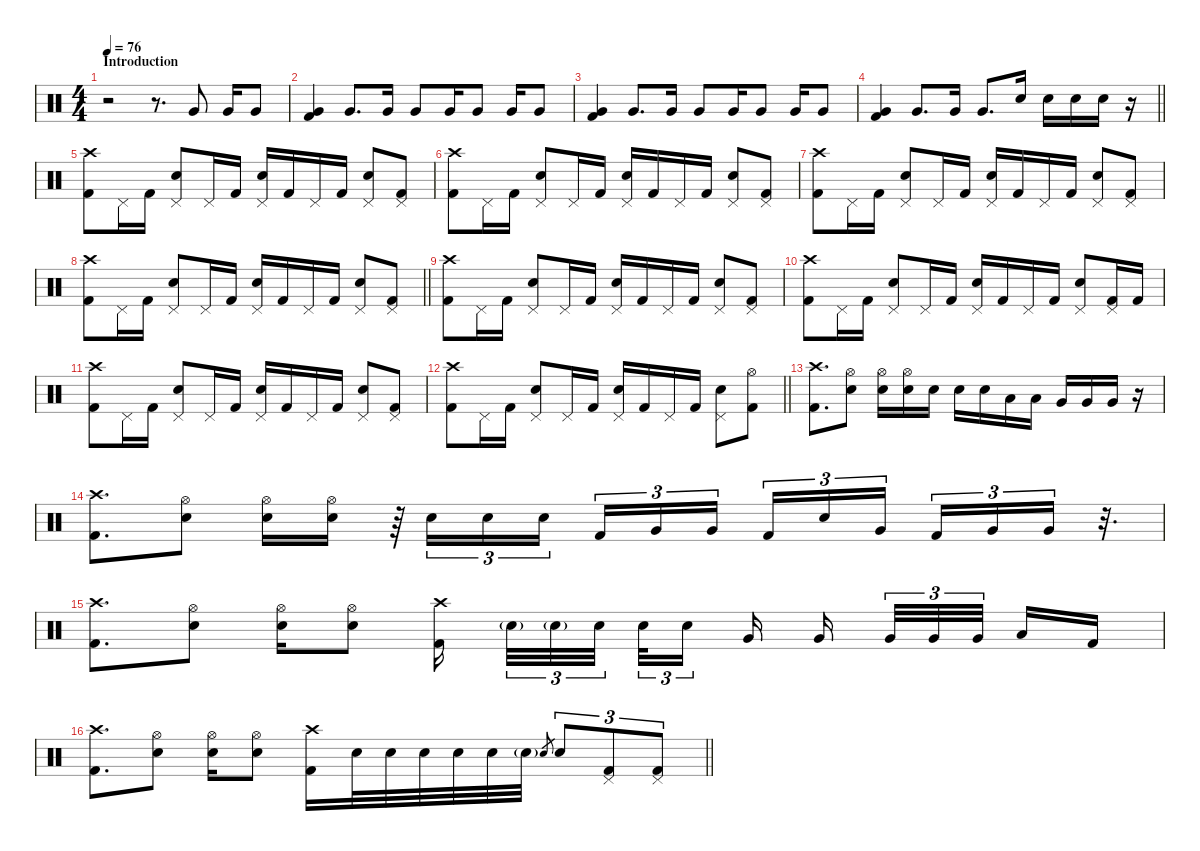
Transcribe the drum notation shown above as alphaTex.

\defaultSystemsLayout 4
\hideDynamics
\bracketExtendMode nobrackets
\singleTrackTrackNamePolicy hidden
\multiTrackTrackNamePolicy hidden
\firstSystemTrackNameMode fullname
\firstSystemTrackNameOrientation horizontal
\otherSystemsTrackNameOrientation horizontal
\track ("Bill Ward - Drums" "drm.") {instrument percussion}
\staff {score}
\articulation defaults
\ts (4 4)
\beaming (8 2 2 2 2)
\section ("" "Introduction")
\tempo 76
\clef neutral
\ks c
r.2{dy f} r.8{d} "Very Low Tom (hit)".8 "Very Low Tom (hit)".16 "Very Low Tom (hit)".8 |
("Very Low Tom (hit)" "Kick (hit) 2").4 "Very Low Tom (hit)".8{d} "Very Low Tom (hit)".16 "Very Low Tom (hit)".8 "Very Low Tom (hit)".16 "Very Low Tom (hit)".8 "Very Low Tom (hit)".16 "Very Low Tom (hit)".8 |
("Very Low Tom (hit)" "Kick (hit) 2").4 "Very Low Tom (hit)".8{d} "Very Low Tom (hit)".16 "Very Low Tom (hit)".8 "Very Low Tom (hit)".16 "Very Low Tom (hit)".8 "Very Low Tom (hit)".16 "Very Low Tom (hit)".8 |
\barLineRight lightlight
("Very Low Tom (hit)" "Kick (hit) 2").4 "Very Low Tom (hit)".8{d} "Very Low Tom (hit)".16 "Very Low Tom (hit)".8{d} "Snare (hit) 2".16 "Snare (hit) 2".16 "Snare (hit) 2".16 "Snare (hit) 2".16 r.16 |
("Crash high (hit)" "Kick (hit) 2").8 "Pedal Hi-Hat (hit)".16 "Kick (hit) 2".16 ("Pedal Hi-Hat (hit)" "Snare (hit) 2").8 "Pedal Hi-Hat (hit)".16 "Kick (hit) 2".16 ("Pedal Hi-Hat (hit)" "Snare (hit) 2").16 "Kick (hit) 2".16 "Pedal Hi-Hat (hit)".16 "Kick (hit) 2".16 ("Pedal Hi-Hat (hit)" "Snare (hit) 2").8 ("Pedal Hi-Hat (hit)" "Kick (hit) 2").8 |
("Crash high (hit)" "Kick (hit) 2").8 "Pedal Hi-Hat (hit)".16 "Kick (hit) 2".16 ("Pedal Hi-Hat (hit)" "Snare (hit) 2").8 "Pedal Hi-Hat (hit)".16 "Kick (hit) 2".16 ("Pedal Hi-Hat (hit)" "Snare (hit) 2").16 "Kick (hit) 2".16 "Pedal Hi-Hat (hit)".16 "Kick (hit) 2".16 ("Pedal Hi-Hat (hit)" "Snare (hit) 2").8 ("Pedal Hi-Hat (hit)" "Kick (hit) 2").8 |
("Crash high (hit)" "Kick (hit) 2").8 "Pedal Hi-Hat (hit)".16 "Kick (hit) 2".16 ("Pedal Hi-Hat (hit)" "Snare (hit) 2").8 "Pedal Hi-Hat (hit)".16 "Kick (hit) 2".16 ("Pedal Hi-Hat (hit)" "Snare (hit) 2").16 "Kick (hit) 2".16 "Pedal Hi-Hat (hit)".16 "Kick (hit) 2".16 ("Pedal Hi-Hat (hit)" "Snare (hit) 2").8 ("Pedal Hi-Hat (hit)" "Kick (hit) 2").8 |
\barLineRight lightlight
("Crash high (hit)" "Kick (hit) 2").8 "Pedal Hi-Hat (hit)".16 "Kick (hit) 2".16 ("Pedal Hi-Hat (hit)" "Snare (hit) 2").8 "Pedal Hi-Hat (hit)".16 "Kick (hit) 2".16 ("Pedal Hi-Hat (hit)" "Snare (hit) 2").16 "Kick (hit) 2".16 "Pedal Hi-Hat (hit)".16 "Kick (hit) 2".16 ("Pedal Hi-Hat (hit)" "Snare (hit) 2").8 ("Pedal Hi-Hat (hit)" "Kick (hit) 2").8 |
("Crash high (hit)" "Kick (hit) 2").8 "Pedal Hi-Hat (hit)".16 "Kick (hit) 2".16 ("Pedal Hi-Hat (hit)" "Snare (hit) 2").8 "Pedal Hi-Hat (hit)".16 "Kick (hit) 2".16 ("Pedal Hi-Hat (hit)" "Snare (hit) 2").16 "Kick (hit) 2".16 "Pedal Hi-Hat (hit)".16 "Kick (hit) 2".16 ("Pedal Hi-Hat (hit)" "Snare (hit) 2").8 ("Pedal Hi-Hat (hit)" "Kick (hit) 2").8 |
("Crash high (hit)" "Kick (hit) 2").8 "Pedal Hi-Hat (hit)".16 "Kick (hit) 2".16 ("Pedal Hi-Hat (hit)" "Snare (hit) 2").8 "Pedal Hi-Hat (hit)".16 "Kick (hit) 2".16 ("Pedal Hi-Hat (hit)" "Snare (hit) 2").16 "Kick (hit) 2".16 "Pedal Hi-Hat (hit)".16 "Kick (hit) 2".16 ("Pedal Hi-Hat (hit)" "Snare (hit) 2").8 ("Pedal Hi-Hat (hit)" "Kick (hit) 2").16 "Kick (hit) 2".16 |
("Crash high (hit)" "Kick (hit) 2").8 "Pedal Hi-Hat (hit)".16 "Kick (hit) 2".16 ("Pedal Hi-Hat (hit)" "Snare (hit) 2").8 "Pedal Hi-Hat (hit)".16 "Kick (hit) 2".16 ("Pedal Hi-Hat (hit)" "Snare (hit) 2").16 "Kick (hit) 2".16 "Pedal Hi-Hat (hit)".16 "Kick (hit) 2".16 ("Pedal Hi-Hat (hit)" "Snare (hit) 2").8 ("Pedal Hi-Hat (hit)" "Kick (hit) 2").8 |
\barLineRight lightlight
("Crash high (hit)" "Kick (hit) 2").8 "Pedal Hi-Hat (hit)".16 "Kick (hit) 2".16 ("Pedal Hi-Hat (hit)" "Snare (hit) 2").8 "Pedal Hi-Hat (hit)".16 "Kick (hit) 2".16 ("Pedal Hi-Hat (hit)" "Snare (hit) 2").16 "Kick (hit) 2".16 "Pedal Hi-Hat (hit)".16 "Kick (hit) 2".16 ("Pedal Hi-Hat (hit)" "Snare (hit) 2").8 ("Hi-Hat (open)" "Kick (hit) 2").8{dy mp} |
("Crash high (hit)" "Kick (hit) 2").8{d dy f} ("Hi-Hat (open)" "Snare (hit) 2").8 ("Hi-Hat (open)" "Snare (hit) 2").16 ("Hi-Hat (open)" "Snare (hit) 2").16 "Snare (hit) 2".16 "Snare (hit) 2".16 "Snare (hit) 2".16 "Low Tom (hit)".16 "Low Tom (hit)".16 "Very Low Tom (hit)".16 "Very Low Tom (hit)".16 "Very Low Tom (hit)".16 r.16 |
("Crash high (hit)" "Kick (hit) 2").8{d} ("Hi-Hat (open)" "Snare (hit) 2").8 ("Hi-Hat (open)" "Snare (hit) 2").16 ("Hi-Hat (open)" "Snare (hit) 2").16 r.64 "Snare (hit) 2".16{tu (3 2)} "Snare (hit) 2".16{tu (3 2)} "Snare (hit) 2".16{tu (3 2)} "Kick (hit) 2".16{tu (3 2)} "Very Low Tom (hit)".16{tu (3 2)} "Very Low Tom (hit)".16{tu (3 2)} "Kick (hit) 2".16{tu (3 2)} "Snare (hit) 2".16{tu (3 2)} "Very Low Tom (hit)".16{tu (3 2)} "Kick (hit) 2".16{tu (3 2)} "Very Low Tom (hit)".16{tu (3 2)} "Very Low Tom (hit)".16{tu (3 2)} r.32{d} |
("Crash high (hit)" "Kick (hit) 2").8{d} ("Hi-Hat (open)" "Snare (hit) 2").8 ("Hi-Hat (open)" "Snare (hit) 2").16 ("Hi-Hat (open)" "Snare (hit) 2").8 ("Crash high (hit)" "Kick (hit) 2").16 "Snare (hit) 2"{g}.32{tu (3 2) dy mf} "Snare (hit) 2"{g}.32{tu (3 2)} "Snare (hit) 2".32{tu (3 2) dy f} "Snare (hit) 2".32{tu (3 2)} "Snare (hit) 2".16{tu (3 2)} "Very Low Tom (hit)".16 "Very Low Tom (hit)".16 "Very Low Tom (hit)".32{tu (3 2)} "Very Low Tom (hit)".32{tu (3 2)} "Very Low Tom (hit)".32{tu (3 2)} "Low Floor Tom (hit)".16 "Kick (hit) 2".16 |
\barLineRight lightlight
("Crash high (hit)" "Kick (hit) 2").8{d} ("Hi-Hat (open)" "Snare (hit) 2").8 ("Hi-Hat (open)" "Snare (hit) 2").16 ("Hi-Hat (open)" "Snare (hit) 2").8 ("Crash high (hit)" "Kick (hit) 2").16 "Snare (hit) 2".32 "Snare (hit) 2".32 "Snare (hit) 2".32 "Snare (hit) 2".32 "Snare (hit) 2".32 "Snare (hit) 2"{g}.32{dy mf} "Electric Snare (hit)".8{gr} "Snare (hit) 2".8{tu (3 2) dy f} ("Pedal Hi-Hat (hit)" "Kick (hit) 2").8{tu (3 2)} ("Pedal Hi-Hat (hit)" "Kick (hit) 2").8{tu (3 2)}
